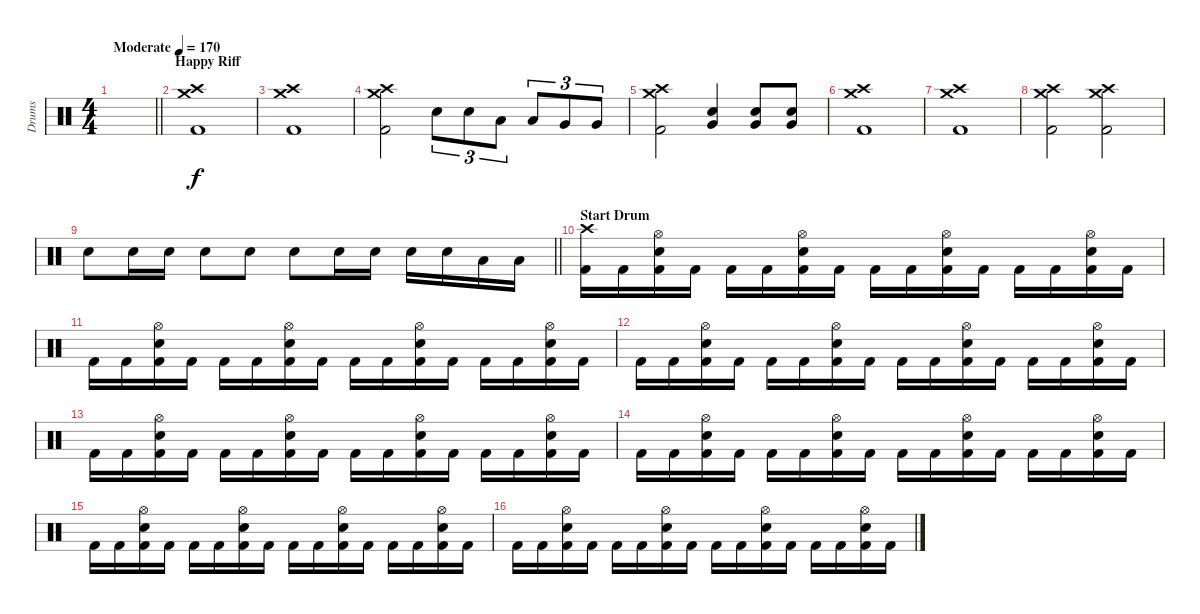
\track ("Drums" "Drums") {instrument percussion}
\staff {score}
\articulation defaults
\ts (4 4)
\tempo (170 "Moderate")
\clef neutral
\barLineRight lightlight
\ks c
|
\section ("" "Happy Riff")
("Crash medium (hit)" "Crash high (hit)" "Kick (hit) 2").1 |
("Crash medium (hit)" "Crash high (hit)" "Kick (hit) 2").1 |
("Crash medium (hit)" "Crash high (hit)" "Kick (hit) 2").2 "Electric Snare (hit)".8{tu (3 2)} "Electric Snare (hit)".8{tu (3 2)} "Low Tom (hit)".8{tu (3 2)} "Low Tom (hit)".8{tu (3 2)} "Very Low Tom (hit)".8{tu (3 2)} "Very Low Tom (hit)".8{tu (3 2)} |
("Crash medium (hit)" "Crash high (hit)" "Kick (hit) 2").2 ("Very Low Tom (hit)" "Electric Snare (hit)").4 ("Very Low Tom (hit)" "Electric Snare (hit)").8 ("Very Low Tom (hit)" "Electric Snare (hit)").8 |
("Crash medium (hit)" "Crash high (hit)" "Kick (hit) 2").1 |
("Crash medium (hit)" "Crash high (hit)" "Kick (hit) 2").1 |
("Crash medium (hit)" "Crash high (hit)" "Kick (hit) 2").2 ("Crash medium (hit)" "Crash high (hit)" "Kick (hit) 2").2 |
\barLineRight lightlight "Electric Snare (hit)".8 "Electric Snare (hit)".16 "Electric Snare (hit)".16 "Electric Snare (hit)".8 "Electric Snare (hit)".8 "Electric Snare (hit)".8 "Electric Snare (hit)".16 "Electric Snare (hit)".16 "Electric Snare (hit)".16 "Electric Snare (hit)".16 "Low Tom (hit)".16 "Low Tom (hit)".16
|
\section ("" "Start Drum")
("Crash high (hit)" "Kick (hit) 2").16 "Kick (hit) 2".16 ("Hi-Hat (open)" "Electric Snare (hit)" "Kick (hit) 2").16 "Kick (hit) 2".16 "Kick (hit) 2".16 "Kick (hit) 2".16 ("Hi-Hat (open)" "Electric Snare (hit)" "Kick (hit) 2").16 "Kick (hit) 2".16 "Kick (hit) 2".16 "Kick (hit) 2".16 ("Hi-Hat (open)" "Electric Snare (hit)" "Kick (hit) 2").16 "Kick (hit) 2".16 "Kick (hit) 2".16 "Kick (hit) 2".16 ("Hi-Hat (open)" "Electric Snare (hit)" "Kick (hit) 2").16 "Kick (hit) 2".16 |
"Kick (hit) 2".16 "Kick (hit) 2".16 ("Hi-Hat (open)" "Electric Snare (hit)" "Kick (hit) 2").16 "Kick (hit) 2".16 "Kick (hit) 2".16 "Kick (hit) 2".16 ("Hi-Hat (open)" "Electric Snare (hit)" "Kick (hit) 2").16 "Kick (hit) 2".16 "Kick (hit) 2".16 "Kick (hit) 2".16 ("Hi-Hat (open)" "Electric Snare (hit)" "Kick (hit) 2").16 "Kick (hit) 2".16 "Kick (hit) 2".16 "Kick (hit) 2".16 ("Hi-Hat (open)" "Electric Snare (hit)" "Kick (hit) 2").16 "Kick (hit) 2".16 |
"Kick (hit) 2".16 "Kick (hit) 2".16 ("Hi-Hat (open)" "Electric Snare (hit)" "Kick (hit) 2").16 "Kick (hit) 2".16 "Kick (hit) 2".16 "Kick (hit) 2".16 ("Hi-Hat (open)" "Electric Snare (hit)" "Kick (hit) 2").16 "Kick (hit) 2".16 "Kick (hit) 2".16 "Kick (hit) 2".16 ("Hi-Hat (open)" "Electric Snare (hit)" "Kick (hit) 2").16 "Kick (hit) 2".16 "Kick (hit) 2".16 "Kick (hit) 2".16 ("Hi-Hat (open)" "Electric Snare (hit)" "Kick (hit) 2").16 "Kick (hit) 2".16 |
"Kick (hit) 2".16 "Kick (hit) 2".16 ("Hi-Hat (open)" "Electric Snare (hit)" "Kick (hit) 2").16 "Kick (hit) 2".16 "Kick (hit) 2".16 "Kick (hit) 2".16 ("Hi-Hat (open)" "Electric Snare (hit)" "Kick (hit) 2").16 "Kick (hit) 2".16 "Kick (hit) 2".16 "Kick (hit) 2".16 ("Hi-Hat (open)" "Electric Snare (hit)" "Kick (hit) 2").16 "Kick (hit) 2".16 "Kick (hit) 2".16 "Kick (hit) 2".16 ("Hi-Hat (open)" "Electric Snare (hit)" "Kick (hit) 2").16 "Kick (hit) 2".16 |
"Kick (hit) 2".16 "Kick (hit) 2".16 ("Hi-Hat (open)" "Electric Snare (hit)" "Kick (hit) 2").16 "Kick (hit) 2".16 "Kick (hit) 2".16 "Kick (hit) 2".16 ("Hi-Hat (open)" "Electric Snare (hit)" "Kick (hit) 2").16 "Kick (hit) 2".16 "Kick (hit) 2".16 "Kick (hit) 2".16 ("Hi-Hat (open)" "Electric Snare (hit)" "Kick (hit) 2").16 "Kick (hit) 2".16 "Kick (hit) 2".16 "Kick (hit) 2".16 ("Hi-Hat (open)" "Electric Snare (hit)" "Kick (hit) 2").16 "Kick (hit) 2".16 |
"Kick (hit) 2".16 "Kick (hit) 2".16 ("Hi-Hat (open)" "Electric Snare (hit)" "Kick (hit) 2").16 "Kick (hit) 2".16 "Kick (hit) 2".16 "Kick (hit) 2".16 ("Hi-Hat (open)" "Electric Snare (hit)" "Kick (hit) 2").16 "Kick (hit) 2".16 "Kick (hit) 2".16 "Kick (hit) 2".16 ("Hi-Hat (open)" "Electric Snare (hit)" "Kick (hit) 2").16 "Kick (hit) 2".16 "Kick (hit) 2".16 "Kick (hit) 2".16 ("Hi-Hat (open)" "Electric Snare (hit)" "Kick (hit) 2").16 "Kick (hit) 2".16 |
"Kick (hit) 2".16 "Kick (hit) 2".16 ("Hi-Hat (open)" "Electric Snare (hit)" "Kick (hit) 2").16 "Kick (hit) 2".16 "Kick (hit) 2".16 "Kick (hit) 2".16 ("Hi-Hat (open)" "Electric Snare (hit)" "Kick (hit) 2").16 "Kick (hit) 2".16 "Kick (hit) 2".16 "Kick (hit) 2".16 ("Hi-Hat (open)" "Electric Snare (hit)" "Kick (hit) 2").16 "Kick (hit) 2".16 "Kick (hit) 2".16 "Kick (hit) 2".16 ("Hi-Hat (open)" "Electric Snare (hit)" "Kick (hit) 2").16 "Kick (hit) 2".16
